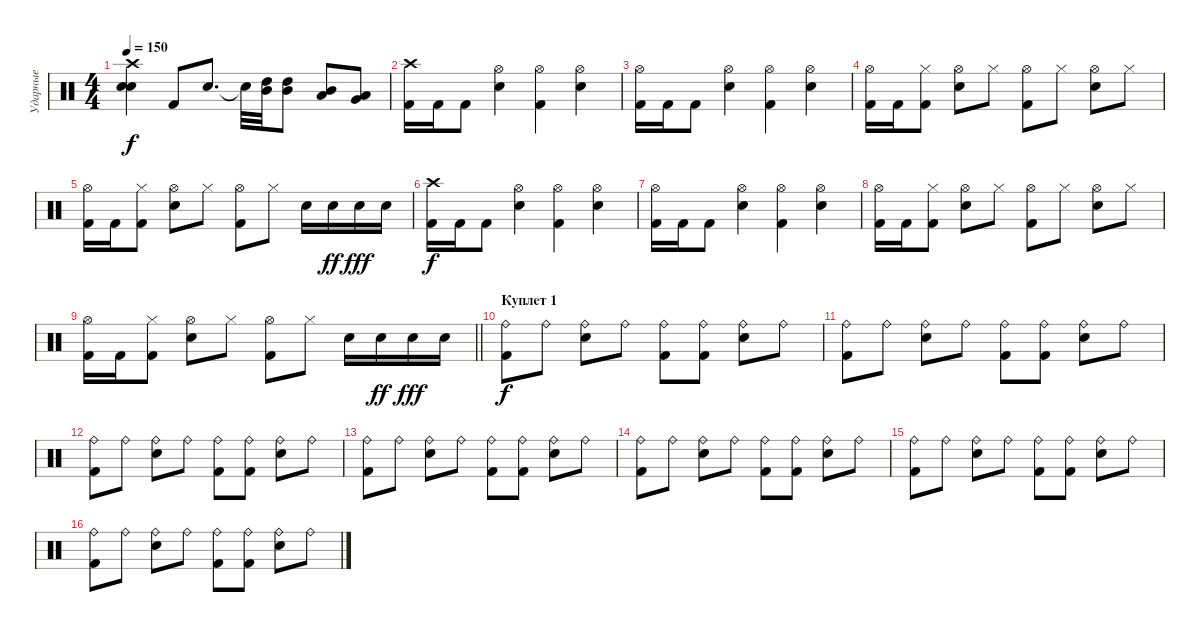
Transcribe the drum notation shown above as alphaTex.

\track ("Ударные" "Ударные") {instrument percussion}
\staff {score}
\articulation defaults
\ts (4 4)
\tempo 150
\clef neutral
\ks c
("Crash high (hit)" "Electric Snare (hit)" "Electric Snare (hit)").4{dy f} "Kick (hit) 2".8 "Electric Snare (hit)".8{d} "Snare (hit)"{t}.32 ("Mid Tom (hit)" "High Tom (hit)").32 ("Mid Tom (hit)" "High Tom (hit)").8 ("Low Tom (hit)" "Mid Tom (hit)").8 ("Very Low Tom (hit)" "Low Tom (hit)").8 |
("Crash high (hit)" "Kick (hit) 2").16 "Kick (hit) 2".16 "Kick (hit) 2".8 ("Hi-Hat (open)" "Electric Snare (hit)").4 ("Hi-Hat (open)" "Kick (hit) 2").4 ("Hi-Hat (open)" "Electric Snare (hit)").4 |
("Hi-Hat (open)" "Kick (hit) 2").16 "Kick (hit) 2".16 "Kick (hit) 2".8 ("Hi-Hat (open)" "Electric Snare (hit)").4 ("Hi-Hat (open)" "Kick (hit) 2").4 ("Hi-Hat (open)" "Electric Snare (hit)").4 |
("Hi-Hat (open)" "Kick (hit) 2").16 "Kick (hit) 2".16 ("Hi-Hat (closed)" "Kick (hit) 2").8 ("Hi-Hat (open)" "Electric Snare (hit)").8 "Hi-Hat (closed)".8 ("Hi-Hat (open)" "Kick (hit) 2").8 "Hi-Hat (closed)".8 ("Hi-Hat (open)" "Electric Snare (hit)").8 "Hi-Hat (closed)".8 |
("Hi-Hat (open)" "Kick (hit) 2").16 "Kick (hit) 2".16 ("Hi-Hat (closed)" "Kick (hit) 2").8 ("Hi-Hat (open)" "Electric Snare (hit)").8 "Hi-Hat (closed)".8 ("Hi-Hat (open)" "Kick (hit) 2").8 "Hi-Hat (closed)".8 "Electric Snare (hit)".16 "Electric Snare (hit)".16{dy ff} "Electric Snare (hit)".16{dy fff} "Electric Snare (hit)".16 |
("Crash high (hit)" "Kick (hit) 2").16{dy f} "Kick (hit) 2".16 "Kick (hit) 2".8 ("Hi-Hat (open)" "Electric Snare (hit)").4 ("Hi-Hat (open)" "Kick (hit) 2").4 ("Hi-Hat (open)" "Electric Snare (hit)").4 |
("Hi-Hat (open)" "Kick (hit) 2").16 "Kick (hit) 2".16 "Kick (hit) 2".8 ("Hi-Hat (open)" "Electric Snare (hit)").4 ("Hi-Hat (open)" "Kick (hit) 2").4 ("Hi-Hat (open)" "Electric Snare (hit)").4 |
("Hi-Hat (open)" "Kick (hit) 2").16 "Kick (hit) 2".16 ("Hi-Hat (closed)" "Kick (hit) 2").8 ("Hi-Hat (open)" "Electric Snare (hit)").8 "Hi-Hat (closed)".8 ("Hi-Hat (open)" "Kick (hit) 2").8 "Hi-Hat (closed)".8 ("Hi-Hat (open)" "Electric Snare (hit)").8 "Hi-Hat (closed)".8 |
\barLineRight lightlight
("Hi-Hat (open)" "Kick (hit) 2").16 "Kick (hit) 2".16 ("Hi-Hat (closed)" "Kick (hit) 2").8 ("Hi-Hat (open)" "Electric Snare (hit)").8 "Hi-Hat (closed)".8 ("Hi-Hat (open)" "Kick (hit) 2").8 "Hi-Hat (closed)".8 "Electric Snare (hit)".16 "Electric Snare (hit)".16{dy ff} "Electric Snare (hit)".16{dy fff} "Electric Snare (hit)".16 |
\section ("" "Куплет 1")
("Ride (bell)" "Kick (hit) 2").8{dy f} "Ride (bell)".8 ("Ride (bell)" "Electric Snare (hit)").8 "Ride (bell)".8 ("Ride (bell)" "Kick (hit) 2").8 ("Ride (bell)" "Kick (hit) 2").8 ("Ride (bell)" "Electric Snare (hit)").8 "Ride (bell)".8 |
("Ride (bell)" "Kick (hit) 2").8 "Ride (bell)".8 ("Ride (bell)" "Electric Snare (hit)").8 "Ride (bell)".8 ("Ride (bell)" "Kick (hit) 2").8 ("Ride (bell)" "Kick (hit) 2").8 ("Ride (bell)" "Electric Snare (hit)").8 "Ride (bell)".8 |
("Ride (bell)" "Kick (hit) 2").8 "Ride (bell)".8 ("Ride (bell)" "Electric Snare (hit)").8 "Ride (bell)".8 ("Ride (bell)" "Kick (hit) 2").8 ("Ride (bell)" "Kick (hit) 2").8 ("Ride (bell)" "Electric Snare (hit)").8 "Ride (bell)".8 |
("Ride (bell)" "Kick (hit) 2").8 "Ride (bell)".8 ("Ride (bell)" "Electric Snare (hit)").8 "Ride (bell)".8 ("Ride (bell)" "Kick (hit) 2").8 ("Ride (bell)" "Kick (hit) 2").8 ("Ride (bell)" "Electric Snare (hit)").8 "Ride (bell)".8 |
("Ride (bell)" "Kick (hit) 2").8 "Ride (bell)".8 ("Ride (bell)" "Electric Snare (hit)").8 "Ride (bell)".8 ("Ride (bell)" "Kick (hit) 2").8 ("Ride (bell)" "Kick (hit) 2").8 ("Ride (bell)" "Electric Snare (hit)").8 "Ride (bell)".8 |
("Ride (bell)" "Kick (hit) 2").8 "Ride (bell)".8 ("Ride (bell)" "Electric Snare (hit)").8 "Ride (bell)".8 ("Ride (bell)" "Kick (hit) 2").8 ("Ride (bell)" "Kick (hit) 2").8 ("Ride (bell)" "Electric Snare (hit)").8 "Ride (bell)".8 |
("Ride (bell)" "Kick (hit) 2").8 "Ride (bell)".8 ("Ride (bell)" "Electric Snare (hit)").8 "Ride (bell)".8 ("Ride (bell)" "Kick (hit) 2").8 ("Ride (bell)" "Kick (hit) 2").8 ("Ride (bell)" "Electric Snare (hit)").8 "Ride (bell)".8
